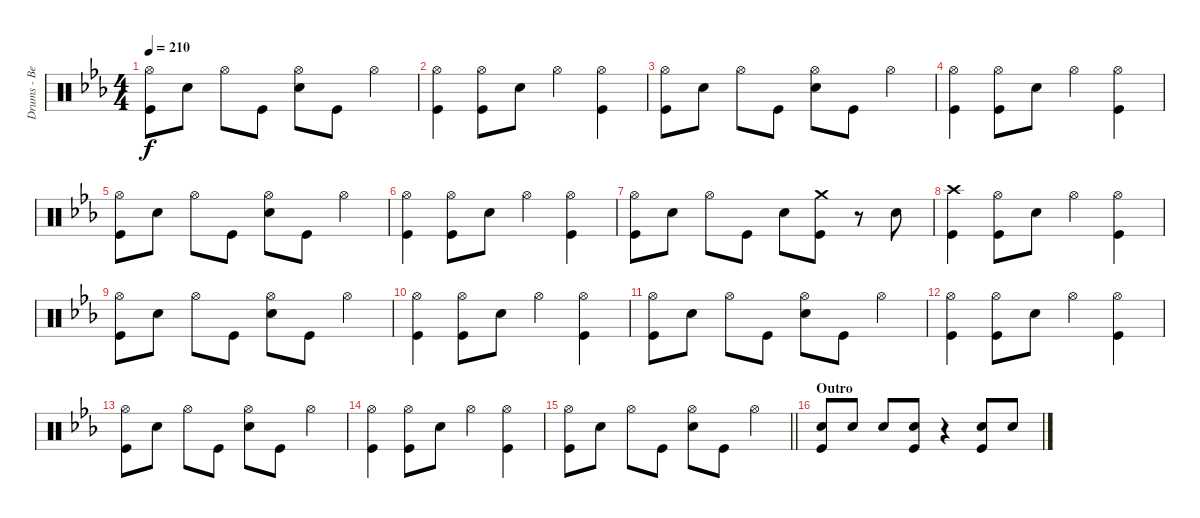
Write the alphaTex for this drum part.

\track ("Drums - Ben Johnston" "Drums - Be") {instrument percussion}
\staff {score}
\articulation defaults
\ts (4 4)
\tempo 210
\clef neutral
\ks cminor
("Hi-Hat (open)" "Kick (hit)").8{dy f} "Snare (hit) 2".8 "Hi-Hat (open)".8 "Kick (hit)".8 ("Hi-Hat (open)" "Snare (hit) 2").8 "Kick (hit)".8 "Hi-Hat (open)".4 |
("Hi-Hat (open)" "Kick (hit)").4 ("Hi-Hat (open)" "Kick (hit)").8 "Snare (hit) 2".8 "Hi-Hat (open)".4 ("Hi-Hat (open)" "Kick (hit)").4 |
("Hi-Hat (open)" "Kick (hit)").8 "Snare (hit) 2".8 "Hi-Hat (open)".8 "Kick (hit)".8 ("Hi-Hat (open)" "Snare (hit) 2").8 "Kick (hit)".8 "Hi-Hat (open)".4 |
("Hi-Hat (open)" "Kick (hit)").4 ("Hi-Hat (open)" "Kick (hit)").8 "Snare (hit) 2".8 "Hi-Hat (open)".4 ("Hi-Hat (open)" "Kick (hit)").4 |
("Hi-Hat (open)" "Kick (hit)").8 "Snare (hit) 2".8 "Hi-Hat (open)".8 "Kick (hit)".8 ("Hi-Hat (open)" "Snare (hit) 2").8 "Kick (hit)".8 "Hi-Hat (open)".4 |
("Hi-Hat (open)" "Kick (hit)").4 ("Hi-Hat (open)" "Kick (hit)").8 "Snare (hit) 2".8 "Hi-Hat (open)".4 ("Hi-Hat (open)" "Kick (hit)").4 |
("Hi-Hat (open)" "Kick (hit)").8 "Snare (hit) 2".8 "Hi-Hat (open)".8 "Kick (hit)".8 "Snare (hit) 2".8 ("Crash medium (hit)" "Kick (hit)").8 r.8 "Snare (hit) 2".8 |
("Crash high (hit)" "Kick (hit)").4 ("Hi-Hat (open)" "Kick (hit)").8 "Snare (hit) 2".8 "Hi-Hat (open)".4 ("Hi-Hat (open)" "Kick (hit)").4 |
("Hi-Hat (open)" "Kick (hit)").8 "Snare (hit) 2".8 "Hi-Hat (open)".8 "Kick (hit)".8 ("Hi-Hat (open)" "Snare (hit) 2").8 "Kick (hit)".8 "Hi-Hat (open)".4 |
("Hi-Hat (open)" "Kick (hit)").4 ("Hi-Hat (open)" "Kick (hit)").8 "Snare (hit) 2".8 "Hi-Hat (open)".4 ("Hi-Hat (open)" "Kick (hit)").4 |
("Hi-Hat (open)" "Kick (hit)").8 "Snare (hit) 2".8 "Hi-Hat (open)".8 "Kick (hit)".8 ("Hi-Hat (open)" "Snare (hit) 2").8 "Kick (hit)".8 "Hi-Hat (open)".4 |
("Hi-Hat (open)" "Kick (hit)").4 ("Hi-Hat (open)" "Kick (hit)").8 "Snare (hit) 2".8 "Hi-Hat (open)".4 ("Hi-Hat (open)" "Kick (hit)").4 |
("Hi-Hat (open)" "Kick (hit)").8 "Snare (hit) 2".8 "Hi-Hat (open)".8 "Kick (hit)".8 ("Hi-Hat (open)" "Snare (hit) 2").8 "Kick (hit)".8 "Hi-Hat (open)".4 |
("Hi-Hat (open)" "Kick (hit)").4 ("Hi-Hat (open)" "Kick (hit)").8 "Snare (hit) 2".8 "Hi-Hat (open)".4 ("Hi-Hat (open)" "Kick (hit)").4 |
\barLineRight lightlight
("Hi-Hat (open)" "Kick (hit)").8 "Snare (hit) 2".8 "Hi-Hat (open)".8 "Kick (hit)".8 ("Hi-Hat (open)" "Snare (hit) 2").8 "Kick (hit)".8 "Hi-Hat (open)".4 |
\section ("" "Outro")
("Snare (hit) 2" "Kick (hit)").8 "Snare (hit) 2".8 "Snare (hit) 2".8 ("Snare (hit) 2" "Kick (hit)").8 r.4 ("Snare (hit) 2" "Kick (hit)").8 "Snare (hit) 2".8
